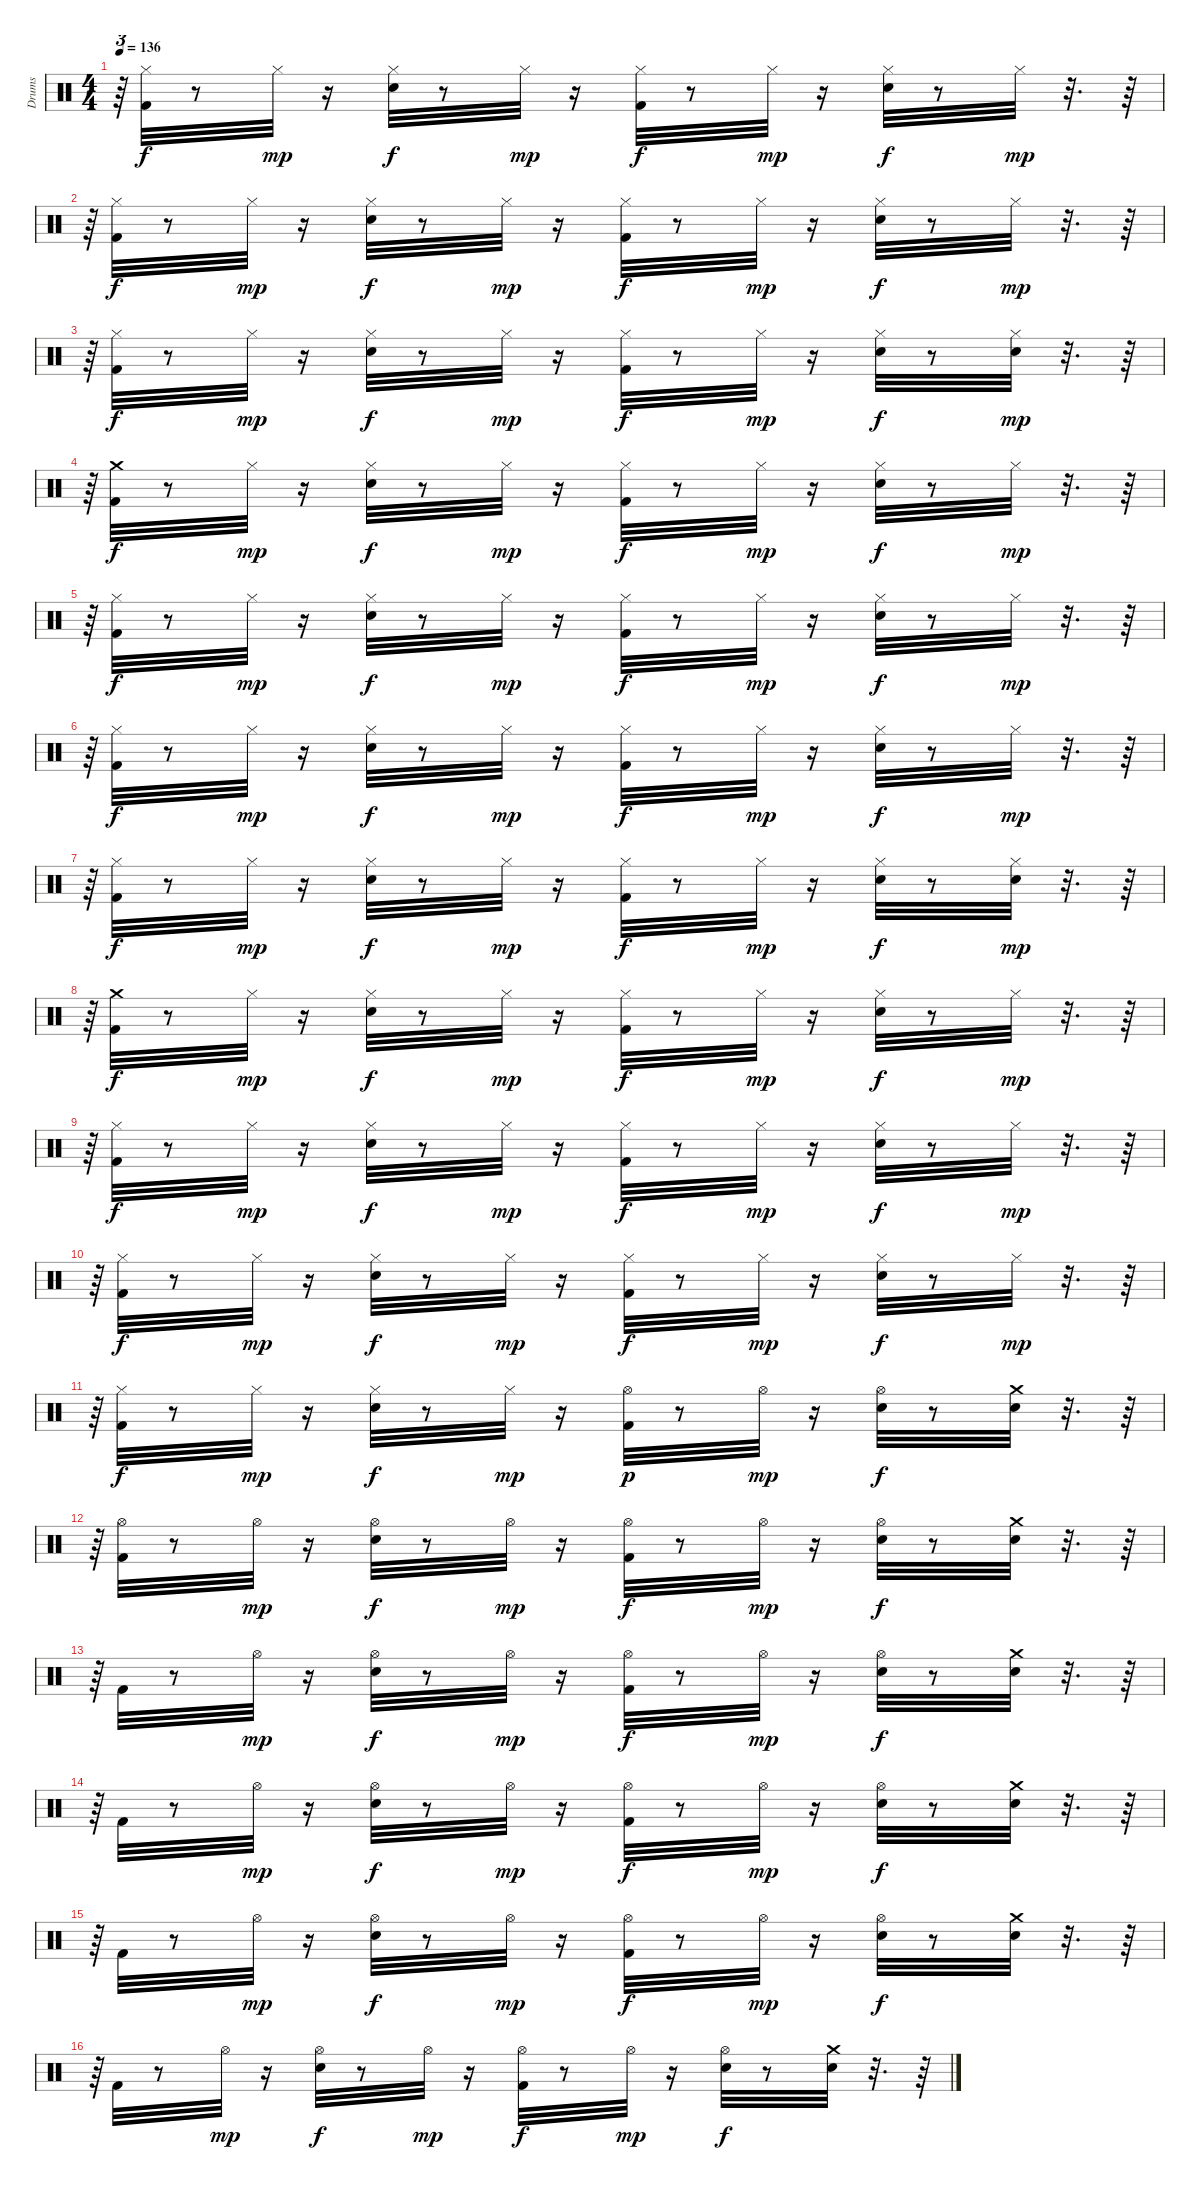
\track ("Drums" "Drums") {instrument percussion}
\staff {score}
\articulation defaults
\ts (4 4)
\tempo 136
\clef neutral
\ks c
r.64{tu (3 2) dy mp} ("Kick (hit) 2" "Hi-Hat (closed)").32{dy f} r.8 "Hi-Hat (closed)".32{dy mp} r.16 ("Hi-Hat (closed)" "Electric Snare (hit)").32{dy f} r.8 "Hi-Hat (closed)".32{dy mp} r.16 ("Hi-Hat (closed)" "Kick (hit) 2").32{dy f} r.8 "Hi-Hat (closed)".32{dy mp} r.16 ("Hi-Hat (closed)" "Electric Snare (hit)").32{dy f} r.8 "Hi-Hat (closed)".32{dy mp} r.32{d} r.64 |
r.64{tu (3 2)} ("Kick (hit) 2" "Hi-Hat (closed)").32{dy f} r.8 "Hi-Hat (closed)".32{dy mp} r.16 ("Hi-Hat (closed)" "Electric Snare (hit)").32{dy f} r.8 "Hi-Hat (closed)".32{dy mp} r.16 ("Hi-Hat (closed)" "Kick (hit) 2").32{dy f} r.8 "Hi-Hat (closed)".32{dy mp} r.16 ("Hi-Hat (closed)" "Electric Snare (hit)").32{dy f} r.8 "Hi-Hat (closed)".32{dy mp} r.32{d} r.64 |
r.64{tu (3 2)} ("Kick (hit) 2" "Hi-Hat (closed)").32{dy f} r.8 "Hi-Hat (closed)".32{dy mp} r.16 ("Hi-Hat (closed)" "Electric Snare (hit)").32{dy f} r.8 "Hi-Hat (closed)".32{dy mp} r.16 ("Hi-Hat (closed)" "Kick (hit) 2").32{dy f} r.8 "Hi-Hat (closed)".32{dy mp} r.16 ("Hi-Hat (closed)" "Electric Snare (hit)").32{dy f} r.8 ("Hi-Hat (closed)" "Electric Snare (hit)").32{dy mp} r.32{d} r.64 |
r.64{tu (3 2)} ("Crash medium (hit)" "Kick (hit) 2").32{dy f} r.8 "Hi-Hat (closed)".32{dy mp} r.16 ("Hi-Hat (closed)" "Electric Snare (hit)").32{dy f} r.8 "Hi-Hat (closed)".32{dy mp} r.16 ("Hi-Hat (closed)" "Kick (hit) 2").32{dy f} r.8 "Hi-Hat (closed)".32{dy mp} r.16 ("Hi-Hat (closed)" "Electric Snare (hit)").32{dy f} r.8 "Hi-Hat (closed)".32{dy mp} r.32{d} r.64 |
r.64{tu (3 2)} ("Kick (hit) 2" "Hi-Hat (closed)").32{dy f} r.8 "Hi-Hat (closed)".32{dy mp} r.16 ("Hi-Hat (closed)" "Electric Snare (hit)").32{dy f} r.8 "Hi-Hat (closed)".32{dy mp} r.16 ("Hi-Hat (closed)" "Kick (hit) 2").32{dy f} r.8 "Hi-Hat (closed)".32{dy mp} r.16 ("Hi-Hat (closed)" "Electric Snare (hit)").32{dy f} r.8 "Hi-Hat (closed)".32{dy mp} r.32{d} r.64 |
r.64{tu (3 2)} ("Kick (hit) 2" "Hi-Hat (closed)").32{dy f} r.8 "Hi-Hat (closed)".32{dy mp} r.16 ("Hi-Hat (closed)" "Electric Snare (hit)").32{dy f} r.8 "Hi-Hat (closed)".32{dy mp} r.16 ("Hi-Hat (closed)" "Kick (hit) 2").32{dy f} r.8 "Hi-Hat (closed)".32{dy mp} r.16 ("Hi-Hat (closed)" "Electric Snare (hit)").32{dy f} r.8 "Hi-Hat (closed)".32{dy mp} r.32{d} r.64 |
r.64{tu (3 2)} ("Kick (hit) 2" "Hi-Hat (closed)").32{dy f} r.8 "Hi-Hat (closed)".32{dy mp} r.16 ("Hi-Hat (closed)" "Electric Snare (hit)").32{dy f} r.8 "Hi-Hat (closed)".32{dy mp} r.16 ("Hi-Hat (closed)" "Kick (hit) 2").32{dy f} r.8 "Hi-Hat (closed)".32{dy mp} r.16 ("Hi-Hat (closed)" "Electric Snare (hit)").32{dy f} r.8 ("Hi-Hat (closed)" "Electric Snare (hit)").32{dy mp} r.32{d} r.64 |
r.64{tu (3 2)} ("Crash medium (hit)" "Kick (hit) 2").32{dy f} r.8 "Hi-Hat (closed)".32{dy mp} r.16 ("Hi-Hat (closed)" "Electric Snare (hit)").32{dy f} r.8 "Hi-Hat (closed)".32{dy mp} r.16 ("Hi-Hat (closed)" "Kick (hit) 2").32{dy f} r.8 "Hi-Hat (closed)".32{dy mp} r.16 ("Hi-Hat (closed)" "Electric Snare (hit)").32{dy f} r.8 "Hi-Hat (closed)".32{dy mp} r.32{d} r.64 |
r.64{tu (3 2)} ("Kick (hit) 2" "Hi-Hat (closed)").32{dy f} r.8 "Hi-Hat (closed)".32{dy mp} r.16 ("Hi-Hat (closed)" "Electric Snare (hit)").32{dy f} r.8 "Hi-Hat (closed)".32{dy mp} r.16 ("Hi-Hat (closed)" "Kick (hit) 2").32{dy f} r.8 "Hi-Hat (closed)".32{dy mp} r.16 ("Hi-Hat (closed)" "Electric Snare (hit)").32{dy f} r.8 "Hi-Hat (closed)".32{dy mp} r.32{d} r.64 |
r.64{tu (3 2)} ("Kick (hit) 2" "Hi-Hat (closed)").32{dy f} r.8 "Hi-Hat (closed)".32{dy mp} r.16 ("Hi-Hat (closed)" "Electric Snare (hit)").32{dy f} r.8 "Hi-Hat (closed)".32{dy mp} r.16 ("Hi-Hat (closed)" "Kick (hit) 2").32{dy f} r.8 "Hi-Hat (closed)".32{dy mp} r.16 ("Hi-Hat (closed)" "Electric Snare (hit)").32{dy f} r.8 "Hi-Hat (closed)".32{dy mp} r.32{d} r.64 |
r.64{tu (3 2)} ("Kick (hit) 2" "Hi-Hat (closed)").32{dy f} r.8 "Hi-Hat (closed)".32{dy mp} r.16 ("Hi-Hat (closed)" "Electric Snare (hit)").32{dy f} r.8 "Hi-Hat (closed)".32{dy mp} r.16 ("Hi-Hat (open)" "Kick (hit) 2").32{dy p} r.8 "Hi-Hat (open)".32{dy mp} r.16 ("Hi-Hat (open)" "Electric Snare (hit)").32{dy f} r.8 ("Crash medium (hit)" "Electric Snare (hit)").32 r.32{d} r.64 |
r.64{tu (3 2)} ("Hi-Hat (open)" "Kick (hit) 2").32 r.8 "Hi-Hat (open)".32{dy mp} r.16 ("Hi-Hat (open)" "Electric Snare (hit)").32{dy f} r.8 "Hi-Hat (open)".32{dy mp} r.16 ("Hi-Hat (open)" "Kick (hit) 2").32{dy f} r.8 "Hi-Hat (open)".32{dy mp} r.16 ("Hi-Hat (open)" "Electric Snare (hit)").32{dy f} r.8 ("Crash medium (hit)" "Electric Snare (hit)").32 r.32{d} r.64 |
r.64{tu (3 2)} "Kick (hit) 2".32 r.8 "Hi-Hat (open)".32{dy mp} r.16 ("Hi-Hat (open)" "Electric Snare (hit)").32{dy f} r.8 "Hi-Hat (open)".32{dy mp} r.16 ("Hi-Hat (open)" "Kick (hit) 2").32{dy f} r.8 "Hi-Hat (open)".32{dy mp} r.16 ("Hi-Hat (open)" "Electric Snare (hit)").32{dy f} r.8 ("Crash medium (hit)" "Electric Snare (hit)").32 r.32{d} r.64 |
r.64{tu (3 2)} "Kick (hit) 2".32 r.8 "Hi-Hat (open)".32{dy mp} r.16 ("Hi-Hat (open)" "Electric Snare (hit)").32{dy f} r.8 "Hi-Hat (open)".32{dy mp} r.16 ("Hi-Hat (open)" "Kick (hit) 2").32{dy f} r.8 "Hi-Hat (open)".32{dy mp} r.16 ("Hi-Hat (open)" "Electric Snare (hit)").32{dy f} r.8 ("Crash medium (hit)" "Electric Snare (hit)").32 r.32{d} r.64 |
r.64{tu (3 2)} "Kick (hit) 2".32 r.8 "Hi-Hat (open)".32{dy mp} r.16 ("Hi-Hat (open)" "Electric Snare (hit)").32{dy f} r.8 "Hi-Hat (open)".32{dy mp} r.16 ("Hi-Hat (open)" "Kick (hit) 2").32{dy f} r.8 "Hi-Hat (open)".32{dy mp} r.16 ("Hi-Hat (open)" "Electric Snare (hit)").32{dy f} r.8 ("Crash medium (hit)" "Electric Snare (hit)").32 r.32{d} r.64 |
r.64{tu (3 2)} "Kick (hit) 2".32 r.8 "Hi-Hat (open)".32{dy mp} r.16 ("Hi-Hat (open)" "Electric Snare (hit)").32{dy f} r.8 "Hi-Hat (open)".32{dy mp} r.16 ("Hi-Hat (open)" "Kick (hit) 2").32{dy f} r.8 "Hi-Hat (open)".32{dy mp} r.16 ("Hi-Hat (open)" "Electric Snare (hit)").32{dy f} r.8 ("Crash medium (hit)" "Electric Snare (hit)").32 r.32{d} r.64
